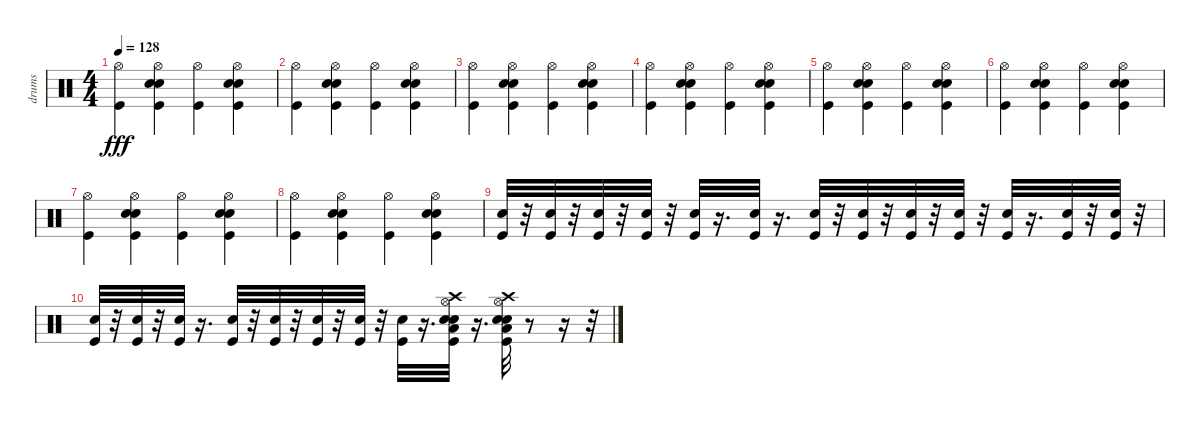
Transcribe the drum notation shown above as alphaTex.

\track ("drums" "drums") {instrument percussion}
\staff {score}
\articulation defaults
\ts (4 4)
\tempo 128
\clef neutral
\ks c
("Hi-Hat (open)" "Kick (hit)").4{dy fff} ("Kick (hit)" "Snare (hit) 2" "Electric Snare (hit)" "Hi-Hat (open)").4 ("Kick (hit)" "Hi-Hat (open)").4 ("Kick (hit)" "Snare (hit) 2" "Electric Snare (hit)" "Hi-Hat (open)").4 |
("Hi-Hat (open)" "Kick (hit)").4 ("Kick (hit)" "Snare (hit) 2" "Electric Snare (hit)" "Hi-Hat (open)").4 ("Kick (hit)" "Hi-Hat (open)").4 ("Kick (hit)" "Snare (hit) 2" "Electric Snare (hit)" "Hi-Hat (open)").4 |
("Hi-Hat (open)" "Kick (hit)").4 ("Kick (hit)" "Snare (hit) 2" "Electric Snare (hit)" "Hi-Hat (open)").4 ("Kick (hit)" "Hi-Hat (open)").4 ("Kick (hit)" "Snare (hit) 2" "Electric Snare (hit)" "Hi-Hat (open)").4 |
("Hi-Hat (open)" "Kick (hit)").4 ("Kick (hit)" "Snare (hit) 2" "Electric Snare (hit)" "Hi-Hat (open)").4 ("Kick (hit)" "Hi-Hat (open)").4 ("Kick (hit)" "Snare (hit) 2" "Electric Snare (hit)" "Hi-Hat (open)").4 |
("Hi-Hat (open)" "Kick (hit)").4 ("Kick (hit)" "Snare (hit) 2" "Electric Snare (hit)" "Hi-Hat (open)").4 ("Kick (hit)" "Hi-Hat (open)").4 ("Kick (hit)" "Snare (hit) 2" "Electric Snare (hit)" "Hi-Hat (open)").4 |
("Hi-Hat (open)" "Kick (hit)").4 ("Kick (hit)" "Snare (hit) 2" "Electric Snare (hit)" "Hi-Hat (open)").4 ("Kick (hit)" "Hi-Hat (open)").4 ("Kick (hit)" "Snare (hit) 2" "Electric Snare (hit)" "Hi-Hat (open)").4 |
("Hi-Hat (open)" "Kick (hit)").4 ("Kick (hit)" "Snare (hit) 2" "Electric Snare (hit)" "Hi-Hat (open)").4 ("Kick (hit)" "Hi-Hat (open)").4 ("Kick (hit)" "Snare (hit) 2" "Electric Snare (hit)" "Hi-Hat (open)").4 |
("Hi-Hat (open)" "Kick (hit)").4 ("Kick (hit)" "Snare (hit) 2" "Electric Snare (hit)" "Hi-Hat (open)").4 ("Kick (hit)" "Hi-Hat (open)").4 ("Kick (hit)" "Snare (hit) 2" "Electric Snare (hit)" "Hi-Hat (open)").4 |
("Kick (hit)" "Electric Snare (hit)").32 r.32 ("Electric Snare (hit)" "Kick (hit)").32 r.32 ("Kick (hit)" "Electric Snare (hit)").32 r.32 ("Kick (hit)" "Electric Snare (hit)").32 r.32 ("Kick (hit)" "Electric Snare (hit)").32 r.16{d} ("Kick (hit)" "Electric Snare (hit)").32 r.16{d} ("Kick (hit)" "Electric Snare (hit)").32 r.32 ("Electric Snare (hit)" "Kick (hit)").32 r.32 ("Kick (hit)" "Electric Snare (hit)").32 r.32 ("Electric Snare (hit)" "Kick (hit)").32 r.32 ("Kick (hit)" "Electric Snare (hit)").32 r.16{d} ("Kick (hit)" "Electric Snare (hit)").32 r.32 ("Kick (hit)" "Electric Snare (hit)").32 r.32 |
("Kick (hit)" "Electric Snare (hit)").32 r.32 ("Electric Snare (hit)" "Kick (hit)").32 r.32 ("Kick (hit)" "Electric Snare (hit)").32 r.16{d} ("Kick (hit)" "Electric Snare (hit)").32 r.32 ("Electric Snare (hit)" "Kick (hit)").32 r.32 ("Kick (hit)" "Electric Snare (hit)").32 r.32 ("Kick (hit)" "Electric Snare (hit)").32 r.32 ("Kick (hit)" "Electric Snare (hit)").32 r.16{d} ("Kick (hit)" "Electric Snare (hit)" "Snare (hit) 2" "Hi-Hat (open)" "Crash high (hit)" "Low Floor Tom (hit)").32 r.16{d} ("Kick (hit)" "Electric Snare (hit)" "Snare (hit) 2" "Hi-Hat (open)" "Crash high (hit)" "Low Floor Tom (hit)").32 r.8 r.16 r.32
